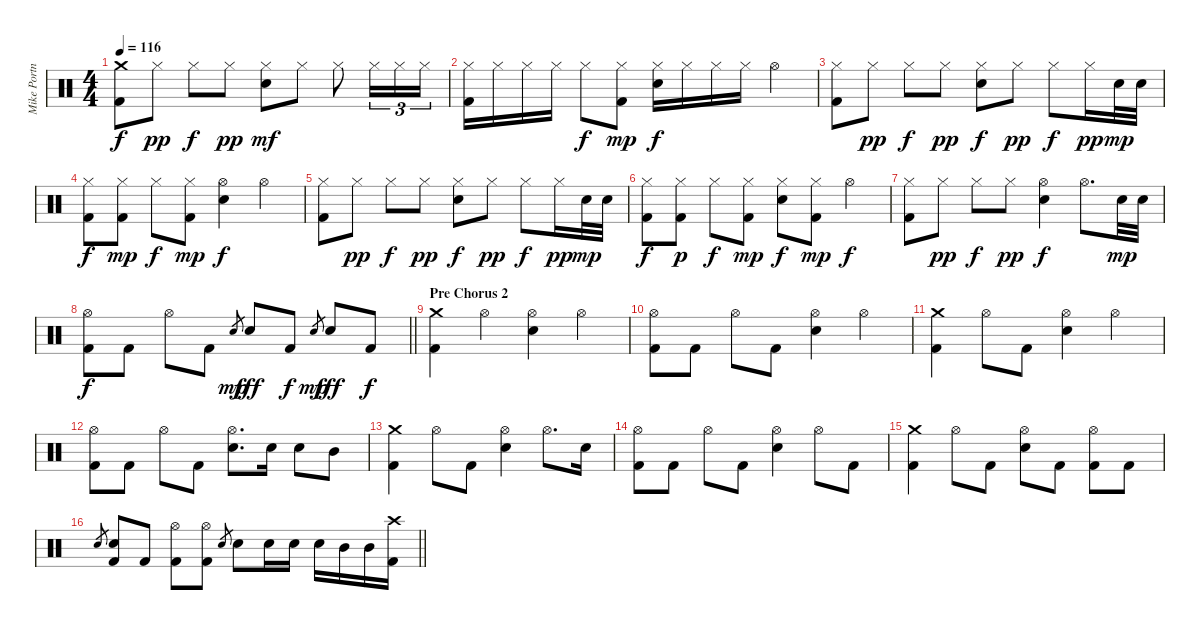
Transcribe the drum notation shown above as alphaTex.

\track ("Mike Portnoy [Drums]" "Mike Portn") {instrument percussion}
\staff {score}
\articulation defaults
\ts (4 4)
\tempo 116
\clef neutral
\ks c
("Crash medium (hit)" "Kick (hit) 2").8{dy f} "Hi-Hat (closed)".8{dy pp} "Hi-Hat (closed)".8{dy f} "Hi-Hat (closed)".8{dy pp} ("Hi-Hat (closed)" "Electric Snare (hit)").8{dy mf} "Hi-Hat (closed)".8 "Hi-Hat (closed)".8 "Hi-Hat (closed)".16{tu (3 2)} "Hi-Hat (closed)".16{tu (3 2)} "Hi-Hat (closed)".16{tu (3 2)} |
("Hi-Hat (closed)" "Kick (hit) 2").16 "Hi-Hat (closed)".16 "Hi-Hat (closed)".16 "Hi-Hat (closed)".16 "Hi-Hat (closed)".8{dy f} ("Hi-Hat (closed)" "Kick (hit) 2").8{dy mp} ("Hi-Hat (closed)" "Electric Snare (hit)").16{dy f} "Hi-Hat (closed)".16 "Hi-Hat (closed)".16 "Hi-Hat (closed)".16 "Hi-Hat (open)".4 |
("Hi-Hat (closed)" "Kick (hit) 2").8 "Hi-Hat (closed)".8{dy pp} "Hi-Hat (closed)".8{dy f} "Hi-Hat (closed)".8{dy pp} ("Hi-Hat (closed)" "Electric Snare (hit)").8{dy f} "Hi-Hat (closed)".8{dy pp} "Hi-Hat (closed)".8{dy f} "Hi-Hat (closed)".16{dy pp} "Electric Snare (hit)".32{dy mp} "Electric Snare (hit)".32 |
("Hi-Hat (closed)" "Kick (hit) 2").8{dy f} ("Hi-Hat (closed)" "Kick (hit) 2").8{dy mp} "Hi-Hat (closed)".8{dy f} ("Hi-Hat (closed)" "Kick (hit) 2").8{dy mp} ("Hi-Hat (open)" "Electric Snare (hit)").4{dy f} "Hi-Hat (open)".4 |
("Hi-Hat (closed)" "Kick (hit) 2").8 "Hi-Hat (closed)".8{dy pp} "Hi-Hat (closed)".8{dy f} "Hi-Hat (closed)".8{dy pp} ("Hi-Hat (closed)" "Electric Snare (hit)").8{dy f} "Hi-Hat (closed)".8{dy pp} "Hi-Hat (closed)".8{dy f} "Hi-Hat (closed)".16{dy pp} "Electric Snare (hit)".32{dy mp} "Electric Snare (hit)".32 |
("Hi-Hat (closed)" "Kick (hit) 2").8{dy f} ("Hi-Hat (closed)" "Kick (hit) 2").8{dy p} "Hi-Hat (closed)".8{dy f} ("Hi-Hat (closed)" "Kick (hit) 2").8{dy mp} ("Hi-Hat (closed)" "Electric Snare (hit)").8{dy f} ("Hi-Hat (closed)" "Kick (hit) 2").8{dy mp} "Hi-Hat (open)".4{dy f} |
("Hi-Hat (closed)" "Kick (hit) 2").8 "Hi-Hat (closed)".8{dy pp} "Hi-Hat (closed)".8{dy f} "Hi-Hat (closed)".8{dy pp} ("Hi-Hat (open)" "Electric Snare (hit)").4{dy f} "Hi-Hat (open)".8{d} "Electric Snare (hit)".32{dy mp} "Electric Snare (hit)".32 |
\barLineRight lightlight
("Hi-Hat (open)" "Kick (hit) 2").8{dy f} "Kick (hit) 2".8 "Hi-Hat (open)".8 "Kick (hit) 2".8 "Electric Snare (hit)".8{gr dy mp} "Electric Snare (hit)".8{dy fff} "Kick (hit) 2".8{dy f} "Electric Snare (hit)".8{gr dy mp} "Electric Snare (hit)".8{dy fff} "Kick (hit) 2".8{dy f} |
\section ("" "Pre Chorus 2")
("Crash medium (hit)" "Kick (hit) 2").4 "Hi-Hat (open)".4 ("Hi-Hat (open)" "Electric Snare (hit)").4 "Hi-Hat (open)".4 |
("Hi-Hat (open)" "Kick (hit) 2").8 "Kick (hit) 2".8 "Hi-Hat (open)".8 "Kick (hit) 2".8 ("Hi-Hat (open)" "Electric Snare (hit)").4 "Hi-Hat (open)".4 |
("Crash medium (hit)" "Kick (hit) 2").4 "Hi-Hat (open)".8 "Kick (hit) 2".8 ("Hi-Hat (open)" "Electric Snare (hit)").4 "Hi-Hat (open)".4 |
("Hi-Hat (open)" "Kick (hit) 2").8 "Kick (hit) 2".8 "Hi-Hat (open)".8 "Kick (hit) 2".8 ("Hi-Hat (open)" "Electric Snare (hit)").8{d} "Electric Snare (hit)".16 "Electric Snare (hit)".8 "Mid Tom (hit)".8 |
("Crash medium (hit)" "Kick (hit) 2").4 "Hi-Hat (open)".8 "Kick (hit) 2".8 ("Hi-Hat (open)" "Electric Snare (hit)").4 "Hi-Hat (open)".8{d} "Electric Snare (hit)".16 |
("Hi-Hat (open)" "Kick (hit) 2").8 "Kick (hit) 2".8 "Hi-Hat (open)".8 "Kick (hit) 2".8 ("Hi-Hat (open)" "Electric Snare (hit)").4 "Hi-Hat (open)".8 "Kick (hit) 2".8 |
("Crash medium (hit)" "Kick (hit) 2").4 "Hi-Hat (open)".8 "Kick (hit) 2".8 ("Hi-Hat (open)" "Electric Snare (hit)").8 "Kick (hit) 2".8 ("Hi-Hat (open)" "Kick (hit) 2").8 "Kick (hit) 2".8 |
\barLineRight lightlight "Electric Snare (hit)".8{gr}
("Electric Snare (hit)" "Kick (hit) 2").8 "Kick (hit) 2".8 ("Hi-Hat (open)" "Kick (hit) 2").8 ("Hi-Hat (open)" "Kick (hit) 2").8 "Electric Snare (hit)".8{gr} "Electric Snare (hit)".8 "Electric Snare (hit)".16 "Electric Snare (hit)".16 "Electric Snare (hit)".16 "Mid Tom (hit)".16 "Mid Tom (hit)".16 ("Crash high (hit)" "Kick (hit) 2").16
